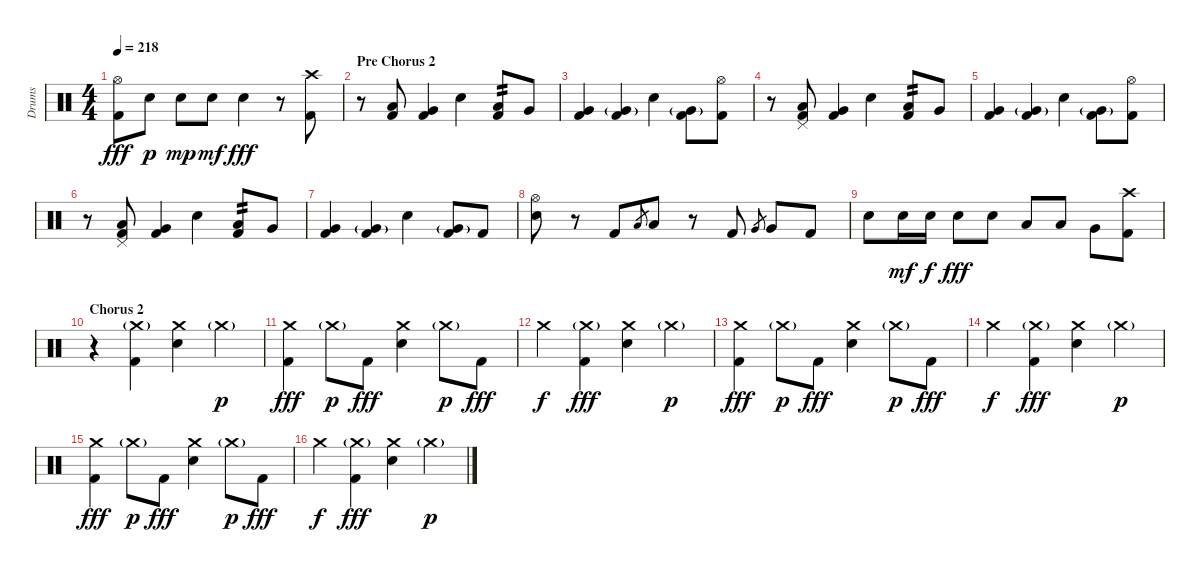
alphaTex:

\track ("Drums" "Drums") {instrument percussion}
\staff {score}
\articulation defaults
\ts (4 4)
\tempo 218
\clef neutral
\ks c
("Hi-Hat (open)" "Kick (hit) 2").8{dy fff} "Electric Snare (hit)".8{dy p} "Electric Snare (hit)".8{dy mp} "Electric Snare (hit)".8{dy mf} "Electric Snare (hit)".4{dy fff} r.8 ("Crash high (hit)" "Kick (hit) 2").8 |
\section ("" "Pre Chorus 2")
r.8 ("Low Tom (hit)" "Kick (hit) 2").8 ("Very Low Tom (hit)" "Kick (hit) 2").4 "Electric Snare (hit)".4 ("Low Tom (hit)" "Kick (hit) 2").8{tp 2} "Very Low Tom (hit)".8 |
("Very Low Tom (hit)" "Kick (hit) 2").4 ("Very Low Tom (hit)"{g} "Kick (hit) 2").4 "Electric Snare (hit)".4 ("Very Low Tom (hit)"{g} "Kick (hit) 2").8 ("Hi-Hat (open)" "Kick (hit) 2").8 |
r.8 ("Low Tom (hit)" "Pedal Hi-Hat (hit)" "Kick (hit) 2").8 ("Very Low Tom (hit)" "Kick (hit) 2").4 "Electric Snare (hit)".4 ("Low Tom (hit)" "Kick (hit) 2").8{tp 2} "Very Low Tom (hit)".8 |
("Very Low Tom (hit)" "Kick (hit) 2").4 ("Very Low Tom (hit)"{g} "Kick (hit) 2").4 "Electric Snare (hit)".4 ("Very Low Tom (hit)"{g} "Kick (hit) 2").8 ("Hi-Hat (open)" "Kick (hit) 2").8 |
r.8 ("Low Tom (hit)" "Pedal Hi-Hat (hit)" "Kick (hit) 2").8 ("Very Low Tom (hit)" "Kick (hit) 2").4 "Electric Snare (hit)".4 ("Low Tom (hit)" "Kick (hit) 2").8{tp 2} "Very Low Tom (hit)".8 |
("Very Low Tom (hit)" "Kick (hit) 2").4 ("Very Low Tom (hit)"{g} "Kick (hit) 2").4 "Electric Snare (hit)".4 ("Very Low Tom (hit)"{g} "Kick (hit) 2").8 "Kick (hit) 2".8 |
("Hi-Hat (open)" "Electric Snare (hit)").8 r.8 "Kick (hit) 2".8 "Low Tom (hit)".8{gr} "Low Tom (hit)".8 r.8 "Kick (hit) 2".8 "Very Low Tom (hit)".8{gr} "Very Low Tom (hit)".8 "Kick (hit) 2".8 |
"Electric Snare (hit)".8 "Electric Snare (hit)".16{dy mf} "Electric Snare (hit)".16{dy f} "Electric Snare (hit)".8{dy fff} "Electric Snare (hit)".8 "Low Tom (hit)".8 "Low Tom (hit)".8 "Very Low Tom (hit)".8 ("Crash high (hit)" "Kick (hit) 2").8 |
\section ("" "Chorus 2")
r.4 ("Crash medium (hit)"{g} "Kick (hit) 2").4 ("Crash medium (hit)" "Electric Snare (hit)").4 "Crash medium (hit)"{g}.4{dy p} |
("Crash medium (hit)" "Kick (hit) 2").4{dy fff} "Crash medium (hit)"{g}.8{dy p} "Kick (hit) 2".8{dy fff} ("Crash medium (hit)" "Electric Snare (hit)").4 "Crash medium (hit)"{g}.8{dy p} "Kick (hit) 2".8{dy fff} |
"Crash medium (hit)".4{dy f} ("Crash medium (hit)"{g} "Kick (hit) 2").4{dy fff} ("Crash medium (hit)" "Electric Snare (hit)").4 "Crash medium (hit)"{g}.4{dy p} |
("Crash medium (hit)" "Kick (hit) 2").4{dy fff} "Crash medium (hit)"{g}.8{dy p} "Kick (hit) 2".8{dy fff} ("Crash medium (hit)" "Electric Snare (hit)").4 "Crash medium (hit)"{g}.8{dy p} "Kick (hit) 2".8{dy fff} |
"Crash medium (hit)".4{dy f} ("Crash medium (hit)"{g} "Kick (hit) 2").4{dy fff} ("Crash medium (hit)" "Electric Snare (hit)").4 "Crash medium (hit)"{g}.4{dy p} |
("Crash medium (hit)" "Kick (hit) 2").4{dy fff} "Crash medium (hit)"{g}.8{dy p} "Kick (hit) 2".8{dy fff} ("Crash medium (hit)" "Electric Snare (hit)").4 "Crash medium (hit)"{g}.8{dy p} "Kick (hit) 2".8{dy fff} |
"Crash medium (hit)".4{dy f} ("Crash medium (hit)"{g} "Kick (hit) 2").4{dy fff} ("Crash medium (hit)" "Electric Snare (hit)").4 "Crash medium (hit)"{g}.4{dy p}
